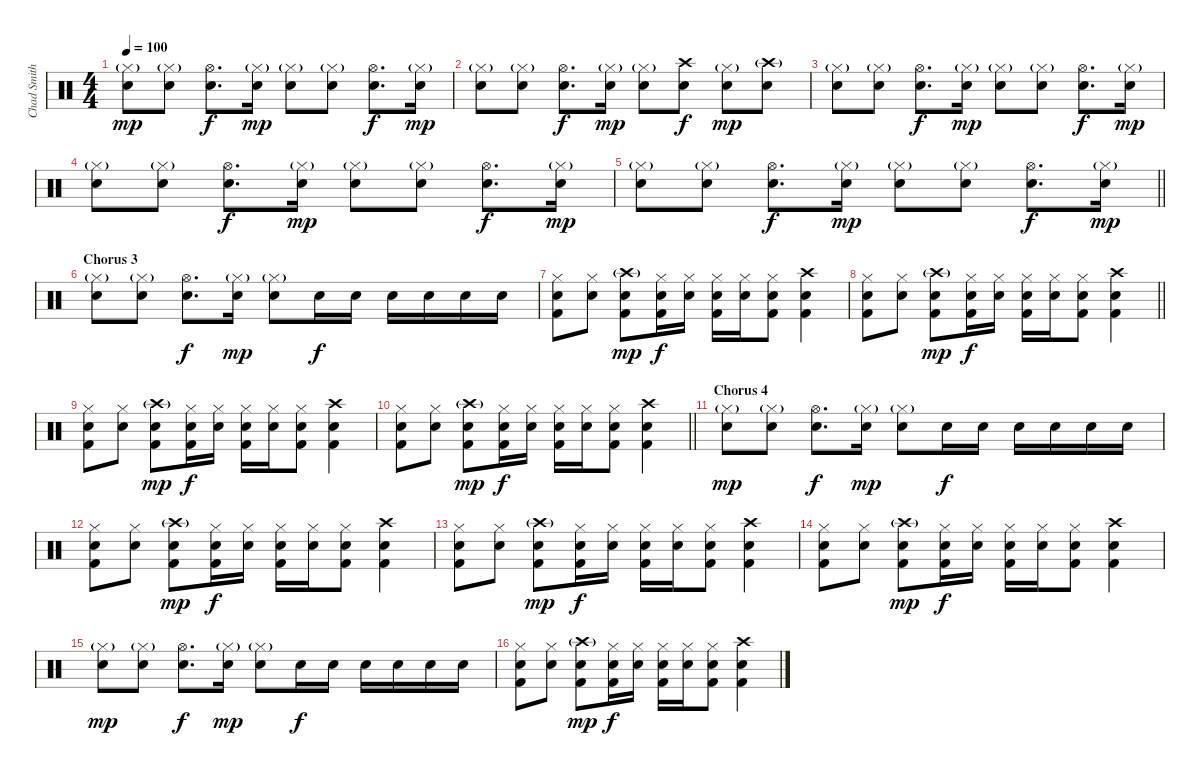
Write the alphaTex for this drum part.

\track ("Chad Smith - Drums" "Chad Smith") {instrument percussion}
\staff {score}
\articulation defaults
\ts (4 4)
\tempo 100
\clef neutral
\ks c
("Hi-Hat (closed)"{g} "Snare (hit) 2").8{dy mp} ("Hi-Hat (closed)"{g} "Snare (hit) 2").8 ("Hi-Hat (open)" "Snare (hit) 2").8{d dy f} ("Hi-Hat (closed)"{g} "Snare (hit) 2").16{dy mp} ("Hi-Hat (closed)"{g} "Snare (hit) 2").8 ("Hi-Hat (closed)"{g} "Snare (hit) 2").8 ("Hi-Hat (open)" "Snare (hit) 2").8{d dy f} ("Hi-Hat (closed)"{g} "Snare (hit) 2").16{dy mp} |
("Hi-Hat (closed)"{g} "Snare (hit) 2").8 ("Hi-Hat (closed)"{g} "Snare (hit) 2").8 ("Hi-Hat (open)" "Snare (hit) 2").8{d dy f} ("Hi-Hat (closed)"{g} "Snare (hit) 2").16{dy mp} ("Hi-Hat (closed)"{g} "Snare (hit) 2").8 ("Crash high (hit)" "Snare (hit) 2").8{dy f} ("Hi-Hat (closed)"{g} "Snare (hit) 2").8{dy mp} ("Crash high (hit)"{g} "Snare (hit) 2").8 |
("Hi-Hat (closed)"{g} "Snare (hit) 2").8 ("Hi-Hat (closed)"{g} "Snare (hit) 2").8 ("Hi-Hat (open)" "Snare (hit) 2").8{d dy f} ("Hi-Hat (closed)"{g} "Snare (hit) 2").16{dy mp} ("Hi-Hat (closed)"{g} "Snare (hit) 2").8 ("Hi-Hat (closed)"{g} "Snare (hit) 2").8 ("Hi-Hat (open)" "Snare (hit) 2").8{d dy f} ("Hi-Hat (closed)"{g} "Snare (hit) 2").16{dy mp} |
("Hi-Hat (closed)"{g} "Snare (hit) 2").8 ("Hi-Hat (closed)"{g} "Snare (hit) 2").8 ("Hi-Hat (open)" "Snare (hit) 2").8{d dy f} ("Hi-Hat (closed)"{g} "Snare (hit) 2").16{dy mp} ("Hi-Hat (closed)"{g} "Snare (hit) 2").8 ("Hi-Hat (closed)"{g} "Snare (hit) 2").8 ("Hi-Hat (open)" "Snare (hit) 2").8{d dy f} ("Hi-Hat (closed)"{g} "Snare (hit) 2").16{dy mp} |
\barLineRight lightlight
("Hi-Hat (closed)"{g} "Snare (hit) 2").8 ("Hi-Hat (closed)"{g} "Snare (hit) 2").8 ("Hi-Hat (open)" "Snare (hit) 2").8{d dy f} ("Hi-Hat (closed)"{g} "Snare (hit) 2").16{dy mp} ("Hi-Hat (closed)"{g} "Snare (hit) 2").8 ("Hi-Hat (closed)"{g} "Snare (hit) 2").8 ("Hi-Hat (open)" "Snare (hit) 2").8{d dy f} ("Hi-Hat (closed)"{g} "Snare (hit) 2").16{dy mp} |
\section ("" "Chorus 3")
("Hi-Hat (closed)"{g} "Snare (hit) 2").8 ("Hi-Hat (closed)"{g} "Snare (hit) 2").8 ("Hi-Hat (open)" "Snare (hit) 2").8{d dy f} ("Hi-Hat (closed)"{g} "Snare (hit) 2").16{dy mp} ("Hi-Hat (closed)"{g} "Snare (hit) 2").8 "Electric Snare (hit)".16{dy f} "Electric Snare (hit)".16 "Electric Snare (hit)".16 "Electric Snare (hit)".16 "Electric Snare (hit)".16 "Electric Snare (hit)".16 |
("Hi-Hat (closed)" "Electric Snare (hit)" "Kick (hit) 2").8 ("Hi-Hat (closed)" "Electric Snare (hit)").8 ("Crash high (hit)"{g} "Electric Snare (hit)" "Kick (hit) 2").8{dy mp} ("Hi-Hat (closed)" "Electric Snare (hit)" "Kick (hit) 2").16{dy f} ("Hi-Hat (closed)" "Electric Snare (hit)").16 ("Hi-Hat (closed)" "Electric Snare (hit)" "Kick (hit) 2").16 ("Hi-Hat (closed)" "Electric Snare (hit)").16 ("Hi-Hat (closed)" "Electric Snare (hit)" "Kick (hit) 2").8 ("Crash high (hit)" "Electric Snare (hit)" "Kick (hit) 2").4 |
\barLineRight lightlight
("Hi-Hat (closed)" "Electric Snare (hit)" "Kick (hit) 2").8 ("Hi-Hat (closed)" "Electric Snare (hit)").8 ("Crash high (hit)"{g} "Electric Snare (hit)" "Kick (hit) 2").8{dy mp} ("Hi-Hat (closed)" "Electric Snare (hit)" "Kick (hit) 2").16{dy f} ("Hi-Hat (closed)" "Electric Snare (hit)").16 ("Hi-Hat (closed)" "Electric Snare (hit)" "Kick (hit) 2").16 ("Hi-Hat (closed)" "Electric Snare (hit)").16 ("Hi-Hat (closed)" "Electric Snare (hit)" "Kick (hit) 2").8 ("Crash high (hit)" "Electric Snare (hit)" "Kick (hit) 2").4 |
("Hi-Hat (closed)" "Electric Snare (hit)" "Kick (hit) 2").8 ("Hi-Hat (closed)" "Electric Snare (hit)").8 ("Crash high (hit)"{g} "Electric Snare (hit)" "Kick (hit) 2").8{dy mp} ("Hi-Hat (closed)" "Electric Snare (hit)" "Kick (hit) 2").16{dy f} ("Hi-Hat (closed)" "Electric Snare (hit)").16 ("Hi-Hat (closed)" "Electric Snare (hit)" "Kick (hit) 2").16 ("Hi-Hat (closed)" "Electric Snare (hit)").16 ("Hi-Hat (closed)" "Electric Snare (hit)" "Kick (hit) 2").8 ("Crash high (hit)" "Electric Snare (hit)" "Kick (hit) 2").4 |
\barLineRight lightlight
("Hi-Hat (closed)" "Electric Snare (hit)" "Kick (hit) 2").8 ("Hi-Hat (closed)" "Electric Snare (hit)").8 ("Crash high (hit)"{g} "Electric Snare (hit)" "Kick (hit) 2").8{dy mp} ("Hi-Hat (closed)" "Electric Snare (hit)" "Kick (hit) 2").16{dy f} ("Hi-Hat (closed)" "Electric Snare (hit)").16 ("Hi-Hat (closed)" "Electric Snare (hit)" "Kick (hit) 2").16 ("Hi-Hat (closed)" "Electric Snare (hit)").16 ("Hi-Hat (closed)" "Electric Snare (hit)" "Kick (hit) 2").8 ("Crash high (hit)" "Electric Snare (hit)" "Kick (hit) 2").4 |
\section ("" "Chorus 4")
("Hi-Hat (closed)"{g} "Snare (hit) 2").8{dy mp} ("Hi-Hat (closed)"{g} "Snare (hit) 2").8 ("Hi-Hat (open)" "Snare (hit) 2").8{d dy f} ("Hi-Hat (closed)"{g} "Snare (hit) 2").16{dy mp} ("Hi-Hat (closed)"{g} "Snare (hit) 2").8 "Electric Snare (hit)".16{dy f} "Electric Snare (hit)".16 "Electric Snare (hit)".16 "Electric Snare (hit)".16 "Electric Snare (hit)".16 "Electric Snare (hit)".16 |
("Hi-Hat (closed)" "Electric Snare (hit)" "Kick (hit) 2").8 ("Hi-Hat (closed)" "Electric Snare (hit)").8 ("Crash high (hit)"{g} "Electric Snare (hit)" "Kick (hit) 2").8{dy mp} ("Hi-Hat (closed)" "Electric Snare (hit)" "Kick (hit) 2").16{dy f} ("Hi-Hat (closed)" "Electric Snare (hit)").16 ("Hi-Hat (closed)" "Electric Snare (hit)" "Kick (hit) 2").16 ("Hi-Hat (closed)" "Electric Snare (hit)").16 ("Hi-Hat (closed)" "Electric Snare (hit)" "Kick (hit) 2").8 ("Crash high (hit)" "Electric Snare (hit)" "Kick (hit) 2").4 |
("Hi-Hat (closed)" "Electric Snare (hit)" "Kick (hit) 2").8 ("Hi-Hat (closed)" "Electric Snare (hit)").8 ("Crash high (hit)"{g} "Electric Snare (hit)" "Kick (hit) 2").8{dy mp} ("Hi-Hat (closed)" "Electric Snare (hit)" "Kick (hit) 2").16{dy f} ("Hi-Hat (closed)" "Electric Snare (hit)").16 ("Hi-Hat (closed)" "Electric Snare (hit)" "Kick (hit) 2").16 ("Hi-Hat (closed)" "Electric Snare (hit)").16 ("Hi-Hat (closed)" "Electric Snare (hit)" "Kick (hit) 2").8 ("Crash high (hit)" "Electric Snare (hit)" "Kick (hit) 2").4 |
("Hi-Hat (closed)" "Electric Snare (hit)" "Kick (hit) 2").8 ("Hi-Hat (closed)" "Electric Snare (hit)").8 ("Crash high (hit)"{g} "Electric Snare (hit)" "Kick (hit) 2").8{dy mp} ("Hi-Hat (closed)" "Electric Snare (hit)" "Kick (hit) 2").16{dy f} ("Hi-Hat (closed)" "Electric Snare (hit)").16 ("Hi-Hat (closed)" "Electric Snare (hit)" "Kick (hit) 2").16 ("Hi-Hat (closed)" "Electric Snare (hit)").16 ("Hi-Hat (closed)" "Electric Snare (hit)" "Kick (hit) 2").8 ("Crash high (hit)" "Electric Snare (hit)" "Kick (hit) 2").4 |
("Hi-Hat (closed)"{g} "Snare (hit) 2").8{dy mp} ("Hi-Hat (closed)"{g} "Snare (hit) 2").8 ("Hi-Hat (open)" "Snare (hit) 2").8{d dy f} ("Hi-Hat (closed)"{g} "Snare (hit) 2").16{dy mp} ("Hi-Hat (closed)"{g} "Snare (hit) 2").8 "Electric Snare (hit)".16{dy f} "Electric Snare (hit)".16 "Electric Snare (hit)".16 "Electric Snare (hit)".16 "Electric Snare (hit)".16 "Electric Snare (hit)".16 |
("Hi-Hat (closed)" "Electric Snare (hit)" "Kick (hit) 2").8 ("Hi-Hat (closed)" "Electric Snare (hit)").8 ("Crash high (hit)"{g} "Electric Snare (hit)" "Kick (hit) 2").8{dy mp} ("Hi-Hat (closed)" "Electric Snare (hit)" "Kick (hit) 2").16{dy f} ("Hi-Hat (closed)" "Electric Snare (hit)").16 ("Hi-Hat (closed)" "Electric Snare (hit)" "Kick (hit) 2").16 ("Hi-Hat (closed)" "Electric Snare (hit)").16 ("Hi-Hat (closed)" "Electric Snare (hit)" "Kick (hit) 2").8 ("Crash high (hit)" "Electric Snare (hit)" "Kick (hit) 2").4
